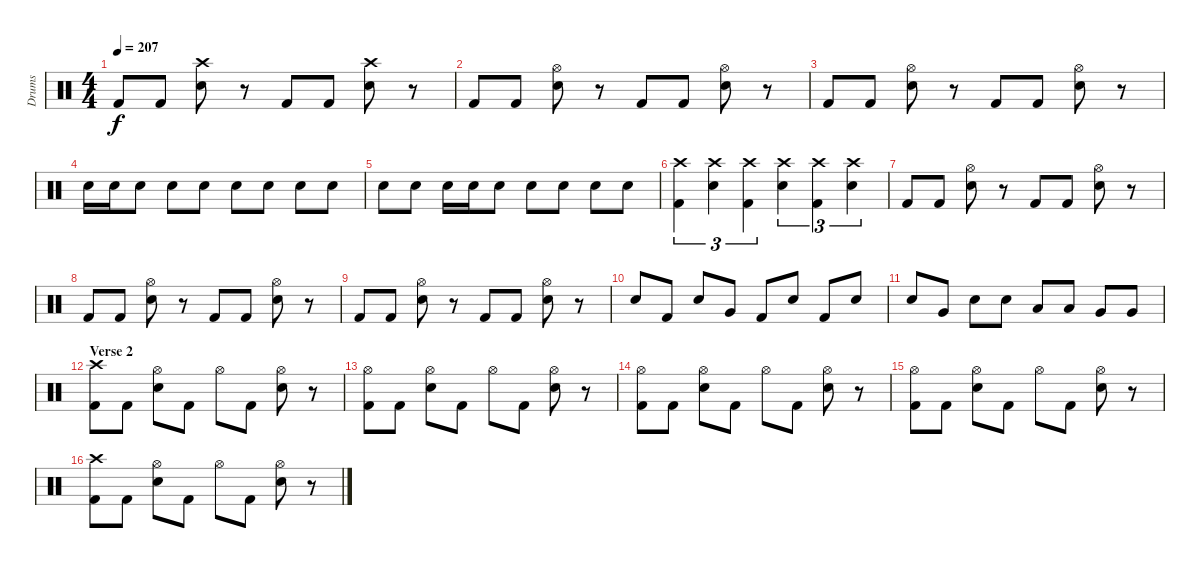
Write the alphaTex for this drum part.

\track ("Drums" "Drums") {instrument percussion}
\staff {score}
\articulation defaults
\ts (4 4)
\tempo 207
\clef neutral
\ks c "Kick (hit) 2".8{dy f} "Kick (hit) 2".8
("Crash high (hit)" "Snare (hit) 2").8 r.8 "Kick (hit) 2".8 "Kick (hit) 2".8 ("Crash high (hit)" "Snare (hit) 2").8 r.8 |
"Kick (hit) 2".8 "Kick (hit) 2".8 ("Hi-Hat (open)" "Snare (hit) 2").8 r.8 "Kick (hit) 2".8 "Kick (hit) 2".8 ("Hi-Hat (open)" "Snare (hit) 2").8 r.8 |
"Kick (hit) 2".8 "Kick (hit) 2".8 ("Hi-Hat (open)" "Snare (hit) 2").8 r.8 "Kick (hit) 2".8 "Kick (hit) 2".8 ("Hi-Hat (open)" "Snare (hit) 2").8 r.8 |
"Snare (hit) 2".16 "Snare (hit) 2".16 "Snare (hit) 2".8 "Snare (hit) 2".8 "Snare (hit) 2".8 "Snare (hit) 2".8 "Snare (hit) 2".8 "Snare (hit) 2".8 "Snare (hit) 2".8 |
"Snare (hit) 2".8 "Snare (hit) 2".8 "Snare (hit) 2".16 "Snare (hit) 2".16 "Snare (hit) 2".8 "Snare (hit) 2".8 "Snare (hit) 2".8 "Snare (hit) 2".8 "Snare (hit) 2".8 |
("Crash high (hit)" "Kick (hit) 2").4{tu (3 2)} ("Crash high (hit)" "Snare (hit) 2").4{tu (3 2)} ("Crash high (hit)" "Kick (hit) 2").4{tu (3 2)} ("Crash high (hit)" "Snare (hit) 2").4{tu (3 2)} ("Crash high (hit)" "Kick (hit) 2").4{tu (3 2)} ("Crash high (hit)" "Snare (hit) 2").4{tu (3 2)} |
"Kick (hit) 2".8 "Kick (hit) 2".8 ("Hi-Hat (open)" "Snare (hit) 2").8 r.8 "Kick (hit) 2".8 "Kick (hit) 2".8 ("Hi-Hat (open)" "Snare (hit) 2").8 r.8 |
"Kick (hit) 2".8 "Kick (hit) 2".8 ("Hi-Hat (open)" "Snare (hit) 2").8 r.8 "Kick (hit) 2".8 "Kick (hit) 2".8 ("Hi-Hat (open)" "Snare (hit) 2").8 r.8 |
"Kick (hit) 2".8 "Kick (hit) 2".8 ("Hi-Hat (open)" "Snare (hit) 2").8 r.8 "Kick (hit) 2".8 "Kick (hit) 2".8 ("Hi-Hat (open)" "Snare (hit) 2").8 r.8 |
"Snare (hit) 2".8 "Kick (hit) 2".8 "Snare (hit) 2".8 "Very Low Tom (hit)".8 "Kick (hit) 2".8 "Snare (hit) 2".8 "Kick (hit) 2".8 "Snare (hit) 2".8 |
"Snare (hit) 2".8 "Very Low Tom (hit)".8 "Snare (hit) 2".8 "Snare (hit) 2".8 "Low Tom (hit)".8 "Low Tom (hit)".8 "Very Low Tom (hit)".8 "Very Low Tom (hit)".8 |
\section ("" "Verse 2")
("Crash high (hit)" "Kick (hit) 2").8 "Kick (hit) 2".8 ("Hi-Hat (open)" "Snare (hit) 2").8 "Kick (hit) 2".8 "Hi-Hat (open)".8 "Kick (hit) 2".8 ("Hi-Hat (open)" "Snare (hit) 2").8 r.8 |
("Hi-Hat (open)" "Kick (hit) 2").8 "Kick (hit) 2".8 ("Hi-Hat (open)" "Snare (hit) 2").8 "Kick (hit) 2".8 "Hi-Hat (open)".8 "Kick (hit) 2".8 ("Hi-Hat (open)" "Snare (hit) 2").8 r.8 |
("Hi-Hat (open)" "Kick (hit) 2").8 "Kick (hit) 2".8 ("Hi-Hat (open)" "Snare (hit) 2").8 "Kick (hit) 2".8 "Hi-Hat (open)".8 "Kick (hit) 2".8 ("Hi-Hat (open)" "Snare (hit) 2").8 r.8 |
("Hi-Hat (open)" "Kick (hit) 2").8 "Kick (hit) 2".8 ("Hi-Hat (open)" "Snare (hit) 2").8 "Kick (hit) 2".8 "Hi-Hat (open)".8 "Kick (hit) 2".8 ("Hi-Hat (open)" "Snare (hit) 2").8 r.8 |
("Crash high (hit)" "Kick (hit) 2").8 "Kick (hit) 2".8 ("Hi-Hat (open)" "Snare (hit) 2").8 "Kick (hit) 2".8 "Hi-Hat (open)".8 "Kick (hit) 2".8 ("Hi-Hat (open)" "Snare (hit) 2").8 r.8
